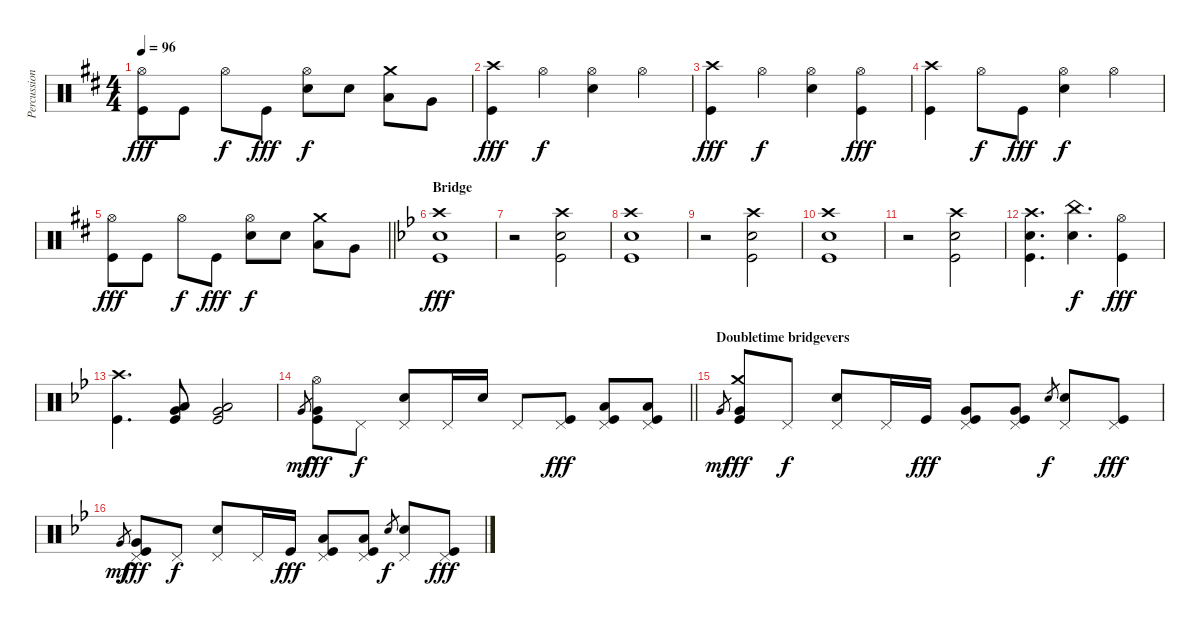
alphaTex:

\track ("Percussion" "Percussion") {instrument percussion}
\staff {score}
\articulation defaults
\ts (4 4)
\tempo 96
\clef neutral
\ks bminor
("Hi-Hat (open)" "Kick (hit)").8{dy fff} "Kick (hit)".8 "Hi-Hat (open)".8{dy f} "Kick (hit)".8{dy fff} ("Hi-Hat (open)" "Electric Snare (hit)").8{dy f} "Electric Snare (hit)".8 ("Crash medium (hit)" "Low Tom (hit)").8 "Very Low Tom (hit)".8 |
("Crash high (hit)" "Kick (hit)").4{dy fff} "Hi-Hat (open)".4{dy f} ("Hi-Hat (open)" "Electric Snare (hit)").4 "Hi-Hat (open)".4 |
("Crash high (hit)" "Kick (hit)").4{dy fff} "Hi-Hat (open)".4{dy f} ("Hi-Hat (open)" "Electric Snare (hit)").4 ("Hi-Hat (open)" "Kick (hit)").4{dy fff} |
("Crash high (hit)" "Kick (hit)").4 "Hi-Hat (open)".8{dy f} "Kick (hit)".8{dy fff} ("Hi-Hat (open)" "Electric Snare (hit)").4{dy f} "Hi-Hat (open)".4 |
\barLineRight lightlight
("Hi-Hat (open)" "Kick (hit)").8{dy fff} "Kick (hit)".8 "Hi-Hat (open)".8{dy f} "Kick (hit)".8{dy fff} ("Hi-Hat (open)" "Electric Snare (hit)").8{dy f} "Electric Snare (hit)".8 ("Crash medium (hit)" "Low Tom (hit)").8 "Very Low Tom (hit)".8 |
\section ("" "Bridge")
\ks gminor
("Crash high (hit)" "Electric Snare (hit)" "Kick (hit)").1{dy fff} |
r.2 ("Crash high (hit)" "Electric Snare (hit)" "Kick (hit)").2 |
("Crash high (hit)" "Electric Snare (hit)" "Kick (hit)").1 |
r.2 ("Crash high (hit)" "Electric Snare (hit)" "Kick (hit)").2 |
("Crash high (hit)" "Electric Snare (hit)" "Kick (hit)").1 |
r.2 ("Crash high (hit)" "Electric Snare (hit)" "Kick (hit)").2 |
("Crash high (hit)" "Electric Snare (hit)" "Kick (hit)").4{d} ("China (hit)" "Electric Snare (hit)").4{d dy f} ("Hi-Hat (open)" "Kick (hit)").4{dy fff} |
("Crash high (hit)" "Kick (hit)").4{d} ("Low Tom (hit)" "Very Low Tom (hit)" "Kick (hit)").8 ("Low Tom (hit)" "Very Low Tom (hit)" "Kick (hit)").2 |
\barLineRight lightlight "Very Low Tom (hit)".8{gr dy mf}
("Hi-Hat (open)" "Very Low Tom (hit)" "Kick (hit)").8{dy fff} "Pedal Hi-Hat (hit)".8{dy f} ("Pedal Hi-Hat (hit)" "Electric Snare (hit)").8 "Pedal Hi-Hat (hit)".16 "Electric Snare (hit)".16 "Pedal Hi-Hat (hit)".8 ("Pedal Hi-Hat (hit)" "Kick (hit)").8{dy fff} ("Pedal Hi-Hat (hit)" "Low Floor Tom (hit)" "Kick (hit)").8 ("Pedal Hi-Hat (hit)" "Low Floor Tom (hit)" "Kick (hit)").8 |
\section ("" "Doubletime bridgevers")
"Very Low Tom (hit)".8{gr dy mf} ("Crash medium (hit)" "Very Low Tom (hit)" "Kick (hit)").8{dy fff} "Pedal Hi-Hat (hit)".8{dy f} ("Pedal Hi-Hat (hit)" "Electric Snare (hit)").8 "Pedal Hi-Hat (hit)".16 "Kick (hit)".16{dy fff} ("Pedal Hi-Hat (hit)" "Very Low Tom (hit)" "Kick (hit)").8 ("Pedal Hi-Hat (hit)" "Very Low Tom (hit)" "Kick (hit)").8 "Electric Snare (hit)".8{gr dy f} ("Pedal Hi-Hat (hit)" "Electric Snare (hit)").8 ("Pedal Hi-Hat (hit)" "Kick (hit)").8{dy fff} |
"Very Low Tom (hit)".8{gr dy mf} ("Pedal Hi-Hat (hit)" "Very Low Tom (hit)" "Kick (hit)").8{dy fff} "Pedal Hi-Hat (hit)".8{dy f} ("Pedal Hi-Hat (hit)" "Electric Snare (hit)").8 "Pedal Hi-Hat (hit)".16 "Kick (hit)".16{dy fff} ("Pedal Hi-Hat (hit)" "Low Floor Tom (hit)" "Kick (hit)").8 ("Pedal Hi-Hat (hit)" "Low Floor Tom (hit)" "Kick (hit)").8 "Electric Snare (hit)".8{gr dy f} ("Pedal Hi-Hat (hit)" "Electric Snare (hit)").8 ("Pedal Hi-Hat (hit)" "Kick (hit)").8{dy fff}
